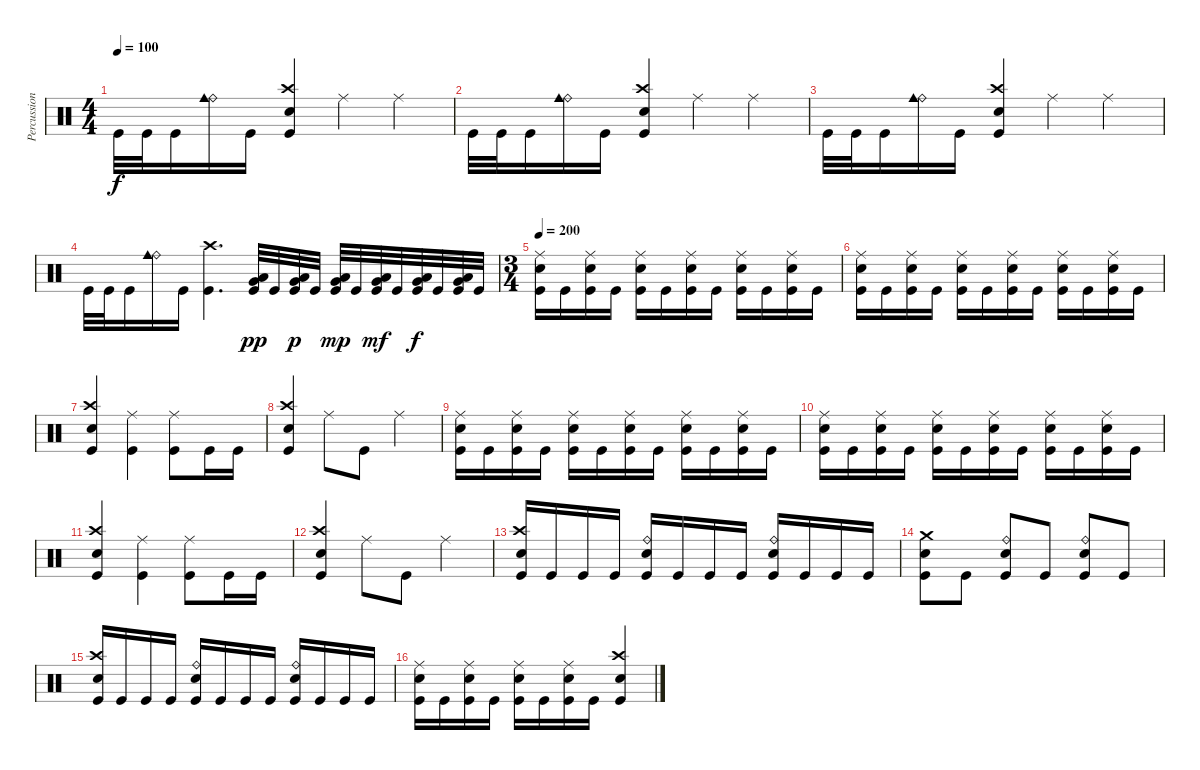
\track ("Percussion" "Percussion") {instrument percussion}
\staff {score}
\articulation defaults
\ts (4 4)
\tempo 100
\clef neutral
\ks c "Kick (hit)".32{dy f} "Kick (hit)".32 "Kick (hit)".16
("Ride (bell)" "Cowbell medium (hit)").16 "Kick (hit)".16 ("Crash high (hit)" "Electric Snare (hit)" "Kick (hit)").4 "Ride (middle)".4 "Ride (middle)".4 |
"Kick (hit)".32 "Kick (hit)".32 "Kick (hit)".16 ("Ride (bell)" "Cowbell medium (hit)").16 "Kick (hit)".16 ("Crash high (hit)" "Electric Snare (hit)" "Kick (hit)").4 "Ride (middle)".4 "Ride (middle)".4 |
"Kick (hit)".32 "Kick (hit)".32 "Kick (hit)".16 ("Ride (bell)" "Cowbell medium (hit)").16 "Kick (hit)".16 ("Crash high (hit)" "Electric Snare (hit)" "Kick (hit)").4 "Ride (middle)".4 "Ride (middle)".4 |
"Kick (hit)".32 "Kick (hit)".32 "Kick (hit)".16 ("Ride (bell)" "Cowbell medium (hit)").16 "Kick (hit)".16 ("Crash high (hit)" "Kick (hit)").4{d} ("Low Floor Tom (hit)" "Very Low Tom (hit)" "Kick (hit)").32{dy pp} "Kick (hit)".32 ("Low Floor Tom (hit)" "Very Low Tom (hit)" "Kick (hit)").32{dy p} "Kick (hit)".32 ("Low Floor Tom (hit)" "Very Low Tom (hit)" "Kick (hit)").32{dy mp} "Kick (hit)".32 ("Low Floor Tom (hit)" "Very Low Tom (hit)" "Kick (hit)").32{dy mf} "Kick (hit)".32 ("Low Floor Tom (hit)" "Very Low Tom (hit)" "Kick (hit)").32{dy f} "Kick (hit)".32 ("Low Floor Tom (hit)" "Very Low Tom (hit)" "Kick (hit)").32 "Kick (hit)".32 |
\ts (3 4)
\tempo 200
("Ride (middle)" "Electric Snare (hit)" "Kick (hit)").16 "Kick (hit)".16 ("Ride (middle)" "Electric Snare (hit)" "Kick (hit)").16 "Kick (hit)".16 ("Ride (middle)" "Electric Snare (hit)" "Kick (hit)").16 "Kick (hit)".16 ("Ride (middle)" "Electric Snare (hit)" "Kick (hit)").16 "Kick (hit)".16 ("Ride (middle)" "Electric Snare (hit)" "Kick (hit)").16 "Kick (hit)".16 ("Ride (middle)" "Electric Snare (hit)" "Kick (hit)").16 "Kick (hit)".16 |
("Ride (middle)" "Electric Snare (hit)" "Kick (hit)").16 "Kick (hit)".16 ("Ride (middle)" "Electric Snare (hit)" "Kick (hit)").16 "Kick (hit)".16 ("Ride (middle)" "Electric Snare (hit)" "Kick (hit)").16 "Kick (hit)".16 ("Ride (middle)" "Electric Snare (hit)" "Kick (hit)").16 "Kick (hit)".16 ("Ride (middle)" "Electric Snare (hit)" "Kick (hit)").16 "Kick (hit)".16 ("Ride (middle)" "Electric Snare (hit)" "Kick (hit)").16 "Kick (hit)".16 |
("Crash high (hit)" "Electric Snare (hit)" "Kick (hit)").4 ("Ride (middle)" "Kick (hit)").4 ("Ride (middle)" "Kick (hit)").8 "Kick (hit)".16 "Kick (hit)".16 |
("Crash high (hit)" "Electric Snare (hit)" "Kick (hit)").4 "Ride (middle)".8 "Kick (hit)".8 "Ride (middle)".4 |
("Ride (middle)" "Electric Snare (hit)" "Kick (hit)").16 "Kick (hit)".16 ("Ride (middle)" "Electric Snare (hit)" "Kick (hit)").16 "Kick (hit)".16 ("Ride (middle)" "Electric Snare (hit)" "Kick (hit)").16 "Kick (hit)".16 ("Ride (middle)" "Electric Snare (hit)" "Kick (hit)").16 "Kick (hit)".16 ("Ride (middle)" "Electric Snare (hit)" "Kick (hit)").16 "Kick (hit)".16 ("Ride (middle)" "Electric Snare (hit)" "Kick (hit)").16 "Kick (hit)".16 |
("Ride (middle)" "Electric Snare (hit)" "Kick (hit)").16 "Kick (hit)".16 ("Ride (middle)" "Electric Snare (hit)" "Kick (hit)").16 "Kick (hit)".16 ("Ride (middle)" "Electric Snare (hit)" "Kick (hit)").16 "Kick (hit)".16 ("Ride (middle)" "Electric Snare (hit)" "Kick (hit)").16 "Kick (hit)".16 ("Ride (middle)" "Electric Snare (hit)" "Kick (hit)").16 "Kick (hit)".16 ("Ride (middle)" "Electric Snare (hit)" "Kick (hit)").16 "Kick (hit)".16 |
("Crash high (hit)" "Electric Snare (hit)" "Kick (hit)").4 ("Ride (middle)" "Kick (hit)").4 ("Ride (middle)" "Kick (hit)").8 "Kick (hit)".16 "Kick (hit)".16 |
("Crash high (hit)" "Electric Snare (hit)" "Kick (hit)").4 "Ride (middle)".8 "Kick (hit)".8 "Ride (middle)".4 |
("Crash high (hit)" "Electric Snare (hit)" "Kick (hit)").16 "Kick (hit)".16 "Kick (hit)".16 "Kick (hit)".16 ("Ride (bell)" "Electric Snare (hit)" "Kick (hit)").16 "Kick (hit)".16 "Kick (hit)".16 "Kick (hit)".16 ("Ride (bell)" "Electric Snare (hit)" "Kick (hit)").16 "Kick (hit)".16 "Kick (hit)".16 "Kick (hit)".16 |
("Crash medium (hit)" "Electric Snare (hit)" "Kick (hit)").8 "Kick (hit)".8 ("Ride (bell)" "Electric Snare (hit)" "Kick (hit)").8 "Kick (hit)".8 ("Ride (bell)" "Electric Snare (hit)" "Kick (hit)").8 "Kick (hit)".8 |
("Crash high (hit)" "Electric Snare (hit)" "Kick (hit)").16 "Kick (hit)".16 "Kick (hit)".16 "Kick (hit)".16 ("Ride (bell)" "Electric Snare (hit)" "Kick (hit)").16 "Kick (hit)".16 "Kick (hit)".16 "Kick (hit)".16 ("Ride (bell)" "Electric Snare (hit)" "Kick (hit)").16 "Kick (hit)".16 "Kick (hit)".16 "Kick (hit)".16 |
("Ride (middle)" "Electric Snare (hit)" "Kick (hit)").16 "Kick (hit)".16 ("Ride (middle)" "Electric Snare (hit)" "Kick (hit)").16 "Kick (hit)".16 ("Ride (middle)" "Electric Snare (hit)" "Kick (hit)").16 "Kick (hit)".16 ("Ride (middle)" "Electric Snare (hit)" "Kick (hit)").16 "Kick (hit)".16 ("Crash high (hit)" "Electric Snare (hit)" "Kick (hit)").4
